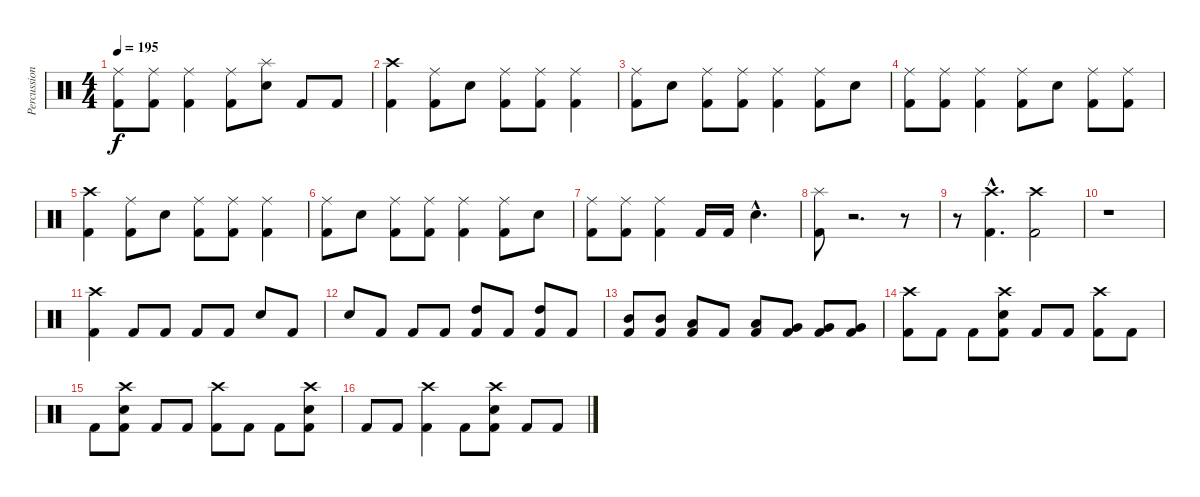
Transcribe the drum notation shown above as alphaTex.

\track ("Percussion" "Percussion") {instrument percussion}
\staff {score}
\articulation defaults
\ts (4 4)
\tempo 195
\clef neutral
\ks c
("Ride (middle)" "Kick (hit) 2").8{dy f} ("Ride (middle)" "Kick (hit) 2").8 ("Ride (middle)" "Kick (hit) 2").4 ("Ride (middle)" "Kick (hit) 2").8 ("Splash (hit)" "Snare (hit) 2").8 "Kick (hit) 2".8 "Kick (hit) 2".8 |
("Crash high (hit)" "Kick (hit) 2").4 ("Ride (middle)" "Kick (hit) 2").8 "Snare (hit) 2".8 ("Ride (middle)" "Kick (hit) 2").8 ("Ride (middle)" "Kick (hit) 2").8 ("Ride (middle)" "Kick (hit) 2").4 |
("Ride (middle)" "Kick (hit) 2").8 "Snare (hit) 2".8 ("Ride (middle)" "Kick (hit) 2").8 ("Ride (middle)" "Kick (hit) 2").8 ("Ride (middle)" "Kick (hit) 2").4 ("Ride (middle)" "Kick (hit) 2").8 "Snare (hit) 2".8 |
("Ride (middle)" "Kick (hit) 2").8 ("Ride (middle)" "Kick (hit) 2").8 ("Ride (middle)" "Kick (hit) 2").4 ("Ride (middle)" "Kick (hit) 2").8 "Snare (hit) 2".8 ("Ride (middle)" "Kick (hit) 2").8 ("Ride (middle)" "Kick (hit) 2").8 |
("Crash high (hit)" "Kick (hit) 2").4 ("Ride (middle)" "Kick (hit) 2").8 "Snare (hit) 2".8 ("Ride (middle)" "Kick (hit) 2").8 ("Ride (middle)" "Kick (hit) 2").8 ("Ride (middle)" "Kick (hit) 2").4 |
("Ride (middle)" "Kick (hit) 2").8 "Snare (hit) 2".8 ("Ride (middle)" "Kick (hit) 2").8 ("Ride (middle)" "Kick (hit) 2").8 ("Ride (middle)" "Kick (hit) 2").4 ("Ride (middle)" "Kick (hit) 2").8 "Snare (hit) 2".8 |
("Ride (middle)" "Kick (hit) 2").8 ("Ride (middle)" "Kick (hit) 2").8 ("Ride (middle)" "Kick (hit) 2").4 "Kick (hit) 2".16 "Kick (hit) 2".16 "Snare (hit) 2"{hac}.4{d} |
("Splash (hit)" "Kick (hit) 2").8 r.2{d} r.8 |
r.8 ("Crash high (hit)"{hac} "Kick (hit) 2"{hac}).4{d} ("Crash high (hit)" "Kick (hit) 2").2 |
r.1 |
("Crash high (hit)" "Kick (hit) 2").4 "Kick (hit) 2".8 "Kick (hit) 2".8 "Kick (hit) 2".8 "Kick (hit) 2".8 "Snare (hit) 2".8 "Kick (hit) 2".8 |
"Snare (hit) 2".8 "Kick (hit) 2".8 "Kick (hit) 2".8 "Kick (hit) 2".8 ("High Tom (hit)" "Kick (hit) 2").8 "Kick (hit) 2".8 ("High Tom (hit)" "Kick (hit) 2").8 "Kick (hit) 2".8 |
("Mid Tom (hit)" "Kick (hit) 2").8 ("Mid Tom (hit)" "Kick (hit) 2").8 ("Low Tom (hit)" "Kick (hit) 2").8 "Kick (hit) 2".8 ("Low Tom (hit)" "Kick (hit) 2").8 ("Very Low Tom (hit)" "Kick (hit) 2").8 ("Very Low Tom (hit)" "Kick (hit) 2").8 ("Very Low Tom (hit)" "Kick (hit) 2").8 |
("Crash high (hit)" "Kick (hit) 2").8 "Kick (hit) 2".8 "Kick (hit) 2".8 ("Crash high (hit)" "Snare (hit) 2" "Kick (hit) 2").8 "Kick (hit) 2".8 "Kick (hit) 2".8 ("Crash high (hit)" "Kick (hit) 2").8 "Kick (hit) 2".8 |
"Kick (hit) 2".8 ("Crash high (hit)" "Snare (hit) 2" "Kick (hit) 2").8 "Kick (hit) 2".8 "Kick (hit) 2".8 ("Crash high (hit)" "Kick (hit) 2").8 "Kick (hit) 2".8 "Kick (hit) 2".8 ("Crash high (hit)" "Snare (hit) 2" "Kick (hit) 2").8 |
"Kick (hit) 2".8 "Kick (hit) 2".8 ("Crash high (hit)" "Kick (hit) 2").4 "Kick (hit) 2".8 ("Crash high (hit)" "Snare (hit) 2" "Kick (hit) 2").8 "Kick (hit) 2".8 "Kick (hit) 2".8
